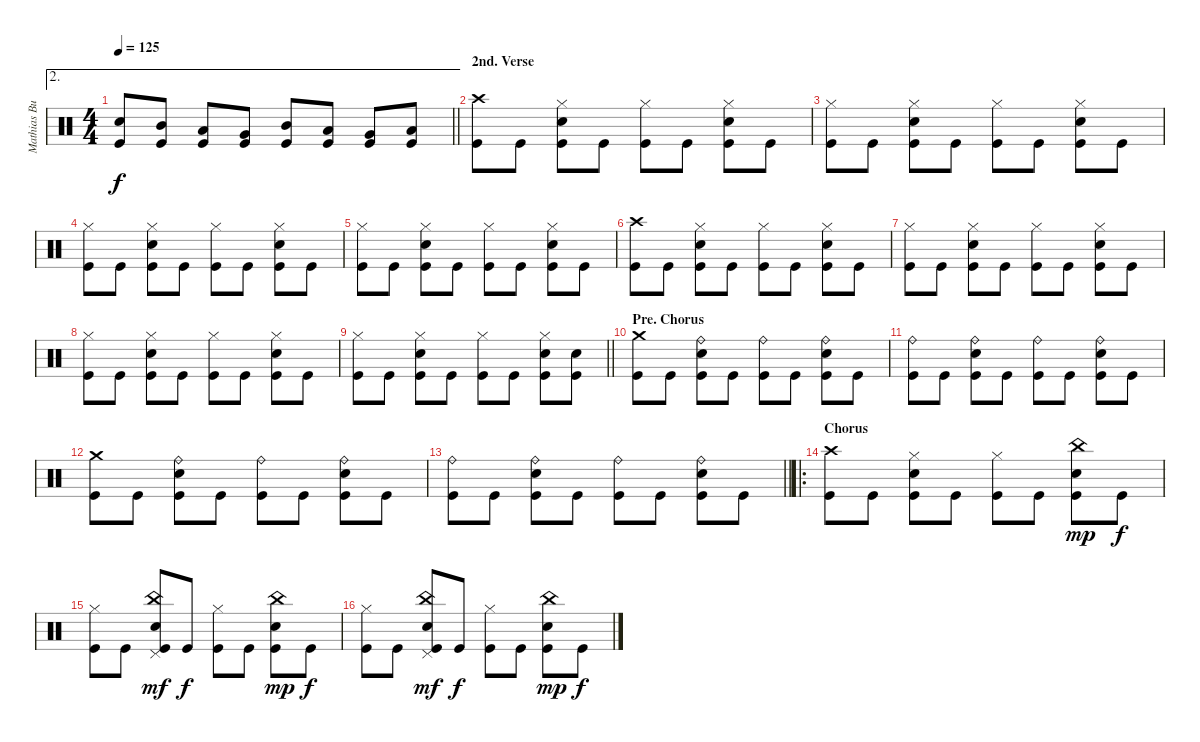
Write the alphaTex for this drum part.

\track ("Mathias Burchardt" "Mathias Bu") {instrument percussion}
\staff {score}
\articulation defaults
\ae 2
\ts (4 4)
\tempo 125
\clef neutral
\barLineRight lightlight
\ks c
("Snare (hit) 2" "Kick (hit)").8{dy f} ("Mid Tom (hit)" "Kick (hit)").8 ("Low Tom (hit)" "Kick (hit)").8 ("Very Low Tom (hit)" "Kick (hit)").8 ("Mid Tom (hit)" "Kick (hit)").8 ("Low Tom (hit)" "Kick (hit)").8 ("Very Low Tom (hit)" "Kick (hit)").8 ("Low Floor Tom (hit)" "Kick (hit)").8 |
\section ("" "2nd. Verse")
("Crash high (hit)" "Kick (hit)").8 "Kick (hit)".8 ("Hi-Hat (closed)" "Snare (hit) 2" "Kick (hit)").8 "Kick (hit)".8 ("Hi-Hat (closed)" "Kick (hit)").8 "Kick (hit)".8 ("Hi-Hat (closed)" "Snare (hit) 2" "Kick (hit)").8 "Kick (hit)".8 |
("Hi-Hat (closed)" "Kick (hit)").8 "Kick (hit)".8 ("Hi-Hat (closed)" "Snare (hit) 2" "Kick (hit)").8 "Kick (hit)".8 ("Hi-Hat (closed)" "Kick (hit)").8 "Kick (hit)".8 ("Hi-Hat (closed)" "Snare (hit) 2" "Kick (hit)").8 "Kick (hit)".8 |
("Hi-Hat (closed)" "Kick (hit)").8 "Kick (hit)".8 ("Hi-Hat (closed)" "Snare (hit) 2" "Kick (hit)").8 "Kick (hit)".8 ("Hi-Hat (closed)" "Kick (hit)").8 "Kick (hit)".8 ("Hi-Hat (closed)" "Snare (hit) 2" "Kick (hit)").8 "Kick (hit)".8 |
("Hi-Hat (closed)" "Kick (hit)").8 "Kick (hit)".8 ("Hi-Hat (closed)" "Snare (hit) 2" "Kick (hit)").8 "Kick (hit)".8 ("Hi-Hat (closed)" "Kick (hit)").8 "Kick (hit)".8 ("Hi-Hat (closed)" "Snare (hit) 2" "Kick (hit)").8 "Kick (hit)".8 |
("Crash high (hit)" "Kick (hit)").8 "Kick (hit)".8 ("Hi-Hat (closed)" "Snare (hit) 2" "Kick (hit)").8 "Kick (hit)".8 ("Hi-Hat (closed)" "Kick (hit)").8 "Kick (hit)".8 ("Hi-Hat (closed)" "Snare (hit) 2" "Kick (hit)").8 "Kick (hit)".8 |
("Hi-Hat (closed)" "Kick (hit)").8 "Kick (hit)".8 ("Hi-Hat (closed)" "Snare (hit) 2" "Kick (hit)").8 "Kick (hit)".8 ("Hi-Hat (closed)" "Kick (hit)").8 "Kick (hit)".8 ("Hi-Hat (closed)" "Snare (hit) 2" "Kick (hit)").8 "Kick (hit)".8 |
("Hi-Hat (closed)" "Kick (hit)").8 "Kick (hit)".8 ("Hi-Hat (closed)" "Snare (hit) 2" "Kick (hit)").8 "Kick (hit)".8 ("Hi-Hat (closed)" "Kick (hit)").8 "Kick (hit)".8 ("Hi-Hat (closed)" "Snare (hit) 2" "Kick (hit)").8 "Kick (hit)".8 |
\barLineRight lightlight
("Hi-Hat (closed)" "Kick (hit)").8 "Kick (hit)".8 ("Hi-Hat (closed)" "Snare (hit) 2" "Kick (hit)").8 "Kick (hit)".8 ("Hi-Hat (closed)" "Kick (hit)").8 "Kick (hit)".8 ("Hi-Hat (closed)" "Snare (hit) 2" "Kick (hit)").8 ("Snare (hit) 2" "Kick (hit)").8 |
\section ("" "Pre. Chorus")
("Crash medium (hit)" "Kick (hit)").8 "Kick (hit)".8 ("Ride (bell)" "Snare (hit) 2" "Kick (hit)").8 "Kick (hit)".8 ("Ride (bell)" "Kick (hit)").8 "Kick (hit)".8 ("Ride (bell)" "Snare (hit) 2" "Kick (hit)").8 "Kick (hit)".8 |
("Ride (bell)" "Kick (hit)").8 "Kick (hit)".8 ("Ride (bell)" "Snare (hit) 2" "Kick (hit)").8 "Kick (hit)".8 ("Ride (bell)" "Kick (hit)").8 "Kick (hit)".8 ("Ride (bell)" "Snare (hit) 2" "Kick (hit)").8 "Kick (hit)".8 |
("Crash medium (hit)" "Kick (hit)").8 "Kick (hit)".8 ("Ride (bell)" "Snare (hit) 2" "Kick (hit)").8 "Kick (hit)".8 ("Ride (bell)" "Kick (hit)").8 "Kick (hit)".8 ("Ride (bell)" "Snare (hit) 2" "Kick (hit)").8 "Kick (hit)".8 |
\barLineRight lightlight
("Ride (bell)" "Kick (hit)").8 "Kick (hit)".8 ("Ride (bell)" "Snare (hit) 2" "Kick (hit)").8 "Kick (hit)".8 ("Ride (bell)" "Kick (hit)").8 "Kick (hit)".8 ("Ride (bell)" "Snare (hit) 2" "Kick (hit)").8 "Kick (hit)".8 |
\ro
\section ("" "Chorus")
("Crash high (hit)" "Kick (hit)").8 "Kick (hit)".8 ("Hi-Hat (closed)" "Snare (hit) 2" "Kick (hit)").8 "Kick (hit)".8 ("Hi-Hat (closed)" "Kick (hit)").8 "Kick (hit)".8 ("China (hit)" "Snare (hit) 2" "Kick (hit)").8{dy mp} "Kick (hit)".8{dy f} |
("Hi-Hat (closed)" "Kick (hit)").8 "Kick (hit)".8 ("China (hit)" "Pedal Hi-Hat (hit)" "Snare (hit) 2" "Kick (hit)").8{dy mf} "Kick (hit)".8{dy f} ("Hi-Hat (closed)" "Kick (hit)").8 "Kick (hit)".8 ("China (hit)" "Snare (hit) 2" "Kick (hit)").8{dy mp} "Kick (hit)".8{dy f} |
("Hi-Hat (closed)" "Kick (hit)").8 "Kick (hit)".8 ("China (hit)" "Pedal Hi-Hat (hit)" "Snare (hit) 2" "Kick (hit)").8{dy mf} "Kick (hit)".8{dy f} ("Hi-Hat (closed)" "Kick (hit)").8 "Kick (hit)".8 ("China (hit)" "Snare (hit) 2" "Kick (hit)").8{dy mp} "Kick (hit)".8{dy f}
